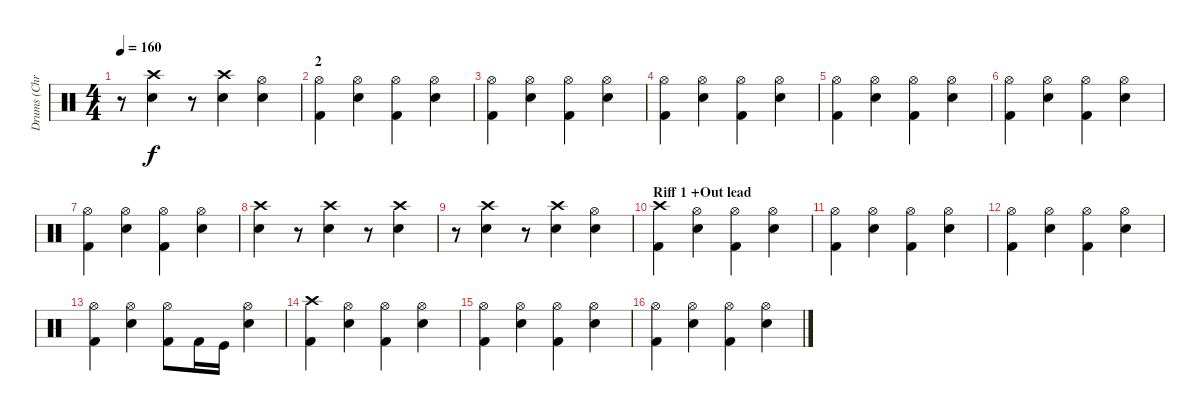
\track ("Drums (Chris Efthimiadis)" "Drums (Chr") {instrument percussion}
\staff {score}
\articulation defaults
\ts (4 4)
\tempo 160
\clef neutral
\ks c
r.8{dy f} ("Crash high (hit)" "Snare (hit) 2").4 r.8 ("Crash high (hit)" "Snare (hit) 2").4 ("Hi-Hat (open)" "Snare (hit) 2").4 |
\section ("" "2")
("Hi-Hat (open)" "Kick (hit) 2").4 ("Hi-Hat (open)" "Snare (hit) 2").4 ("Hi-Hat (open)" "Kick (hit) 2").4 ("Hi-Hat (open)" "Snare (hit) 2").4 |
("Hi-Hat (open)" "Kick (hit) 2").4 ("Hi-Hat (open)" "Snare (hit) 2").4 ("Hi-Hat (open)" "Kick (hit) 2").4 ("Hi-Hat (open)" "Snare (hit) 2").4 |
("Hi-Hat (open)" "Kick (hit) 2").4 ("Hi-Hat (open)" "Snare (hit) 2").4 ("Hi-Hat (open)" "Kick (hit) 2").4 ("Hi-Hat (open)" "Snare (hit) 2").4 |
("Hi-Hat (open)" "Kick (hit) 2").4 ("Hi-Hat (open)" "Snare (hit) 2").4 ("Hi-Hat (open)" "Kick (hit) 2").4 ("Hi-Hat (open)" "Snare (hit) 2").4 |
("Hi-Hat (open)" "Kick (hit) 2").4 ("Hi-Hat (open)" "Snare (hit) 2").4 ("Hi-Hat (open)" "Kick (hit) 2").4 ("Hi-Hat (open)" "Snare (hit) 2").4 |
("Hi-Hat (open)" "Kick (hit) 2").4 ("Hi-Hat (open)" "Snare (hit) 2").4 ("Hi-Hat (open)" "Kick (hit) 2").4 ("Hi-Hat (open)" "Snare (hit) 2").4 |
("Crash high (hit)" "Snare (hit) 2").4 r.8 ("Crash high (hit)" "Snare (hit) 2").4 r.8 ("Crash high (hit)" "Snare (hit) 2").4 |
r.8 ("Crash high (hit)" "Snare (hit) 2").4 r.8 ("Crash high (hit)" "Snare (hit) 2").4 ("Hi-Hat (open)" "Snare (hit) 2").4 |
\section ("" "Riff 1 +Out lead")
("Crash high (hit)" "Kick (hit) 2").4 ("Hi-Hat (open)" "Snare (hit) 2").4 ("Hi-Hat (open)" "Kick (hit) 2").4 ("Hi-Hat (open)" "Snare (hit) 2").4 |
("Hi-Hat (open)" "Kick (hit) 2").4 ("Hi-Hat (open)" "Snare (hit) 2").4 ("Hi-Hat (open)" "Kick (hit) 2").4 ("Hi-Hat (open)" "Snare (hit) 2").4 |
("Hi-Hat (open)" "Kick (hit) 2").4 ("Hi-Hat (open)" "Snare (hit) 2").4 ("Hi-Hat (open)" "Kick (hit) 2").4 ("Hi-Hat (open)" "Snare (hit) 2").4 |
("Hi-Hat (open)" "Kick (hit) 2").4 ("Hi-Hat (open)" "Snare (hit) 2").4 ("Hi-Hat (open)" "Kick (hit) 2").8 "Kick (hit) 2".16 "Kick (hit)".16 ("Hi-Hat (open)" "Snare (hit) 2").4 |
("Crash high (hit)" "Kick (hit) 2").4 ("Hi-Hat (open)" "Snare (hit) 2").4 ("Hi-Hat (open)" "Kick (hit) 2").4 ("Hi-Hat (open)" "Snare (hit) 2").4 |
("Hi-Hat (open)" "Kick (hit) 2").4 ("Hi-Hat (open)" "Snare (hit) 2").4 ("Hi-Hat (open)" "Kick (hit) 2").4 ("Hi-Hat (open)" "Snare (hit) 2").4 |
("Hi-Hat (open)" "Kick (hit) 2").4 ("Hi-Hat (open)" "Snare (hit) 2").4 ("Hi-Hat (open)" "Kick (hit) 2").4 ("Hi-Hat (open)" "Snare (hit) 2").4
